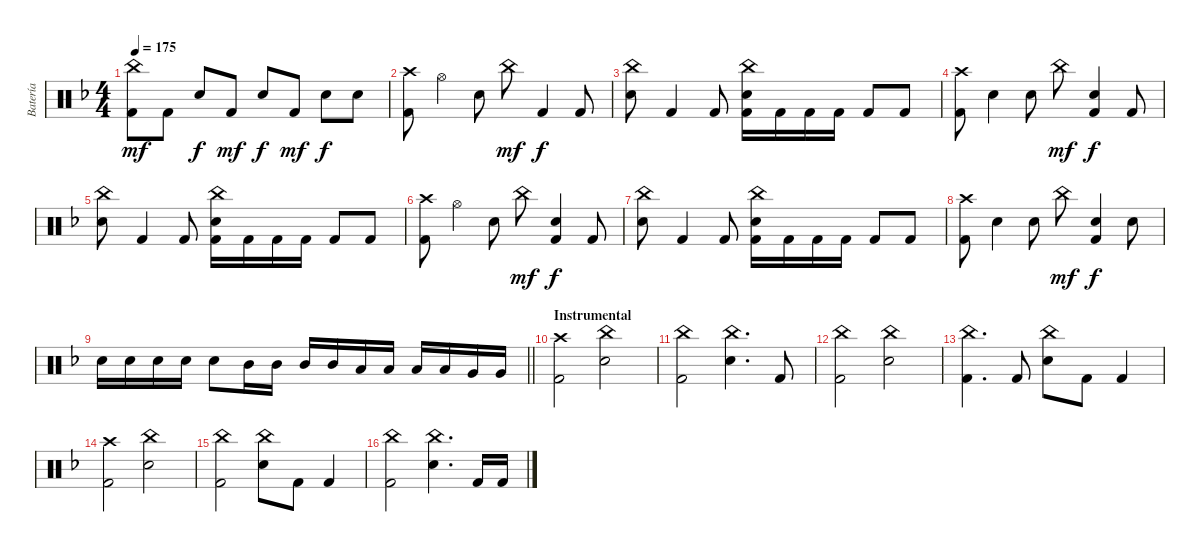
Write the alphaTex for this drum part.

\track ("Batería" "Batería") {instrument percussion}
\staff {score}
\articulation defaults
\ts (4 4)
\tempo 175
\clef neutral
\ks dminor
("China (hit)" "Kick (hit) 2").8{dy mf} "Kick (hit) 2".8 "Snare (hit) 2".8{dy f} "Kick (hit) 2".8{dy mf} "Snare (hit) 2".8{dy f} "Kick (hit) 2".8{dy mf} "Snare (hit) 2".8{dy f} "Snare (hit) 2".8 |
("Crash high (hit)" "Kick (hit) 2").8 "Hi-Hat (open)".4 "Snare (hit) 2".8 "China (hit)".8{dy mf} "Kick (hit) 2".4{dy f} "Kick (hit) 2".8 |
("China (hit)" "Snare (hit) 2").8 "Kick (hit) 2".4 "Kick (hit) 2".8 ("China (hit)" "Snare (hit) 2" "Kick (hit) 2").16 "Kick (hit) 2".16 "Kick (hit) 2".16 "Kick (hit) 2".16 "Kick (hit) 2".8 "Kick (hit) 2".8 |
("Crash high (hit)" "Kick (hit) 2").8 "Snare (hit) 2".4 "Snare (hit) 2".8 "China (hit)".8{dy mf} ("Snare (hit) 2" "Kick (hit) 2").4{dy f} "Kick (hit) 2".8 |
("China (hit)" "Snare (hit) 2").8 "Kick (hit) 2".4 "Kick (hit) 2".8 ("China (hit)" "Snare (hit) 2" "Kick (hit) 2").16 "Kick (hit) 2".16 "Kick (hit) 2".16 "Kick (hit) 2".16 "Kick (hit) 2".8 "Kick (hit) 2".8 |
("Crash high (hit)" "Kick (hit) 2").8 "Hi-Hat (open)".4 "Snare (hit) 2".8 "China (hit)".8{dy mf} ("Snare (hit) 2" "Kick (hit) 2").4{dy f} "Kick (hit) 2".8 |
("China (hit)" "Snare (hit) 2").8 "Kick (hit) 2".4 "Kick (hit) 2".8 ("China (hit)" "Snare (hit) 2" "Kick (hit) 2").16 "Kick (hit) 2".16 "Kick (hit) 2".16 "Kick (hit) 2".16 "Kick (hit) 2".8 "Kick (hit) 2".8 |
("Crash high (hit)" "Kick (hit) 2").8 "Snare (hit) 2".4 "Snare (hit) 2".8 "China (hit)".8{dy mf} ("Snare (hit) 2" "Kick (hit) 2").4{dy f} "Snare (hit) 2".8 |
\barLineRight lightlight "Snare (hit) 2".16 "Snare (hit) 2".16 "Snare (hit) 2".16 "Snare (hit) 2".16 "Snare (hit) 2".8 "Mid Tom (hit)".16 "Mid Tom (hit)".16 "Mid Tom (hit)".16 "Mid Tom (hit)".16 "Low Tom (hit)".16 "Low Tom (hit)".16 "Low Tom (hit)".16 "Low Tom (hit)".16 "Very Low Tom (hit)".16 "Very Low Tom (hit)".16
|
\section ("" "Instrumental")
("Crash high (hit)" "Kick (hit) 2").2 ("China (hit)" "Snare (hit) 2").2 |
("China (hit)" "Kick (hit) 2").2 ("China (hit)" "Snare (hit) 2").4{d} "Kick (hit) 2".8 |
("China (hit)" "Kick (hit) 2").2 ("China (hit)" "Snare (hit) 2").2 |
("China (hit)" "Kick (hit) 2").4{d} "Kick (hit) 2".8 ("China (hit)" "Snare (hit) 2").8 "Kick (hit) 2".8 "Kick (hit) 2".4 |
("Crash high (hit)" "Kick (hit) 2").2 ("China (hit)" "Snare (hit) 2").2 |
("China (hit)" "Kick (hit) 2").2 ("China (hit)" "Snare (hit) 2").8 "Kick (hit) 2".8 "Kick (hit) 2".4 |
("China (hit)" "Kick (hit) 2").2 ("China (hit)" "Snare (hit) 2").4{d} "Kick (hit) 2".16 "Kick (hit) 2".16
